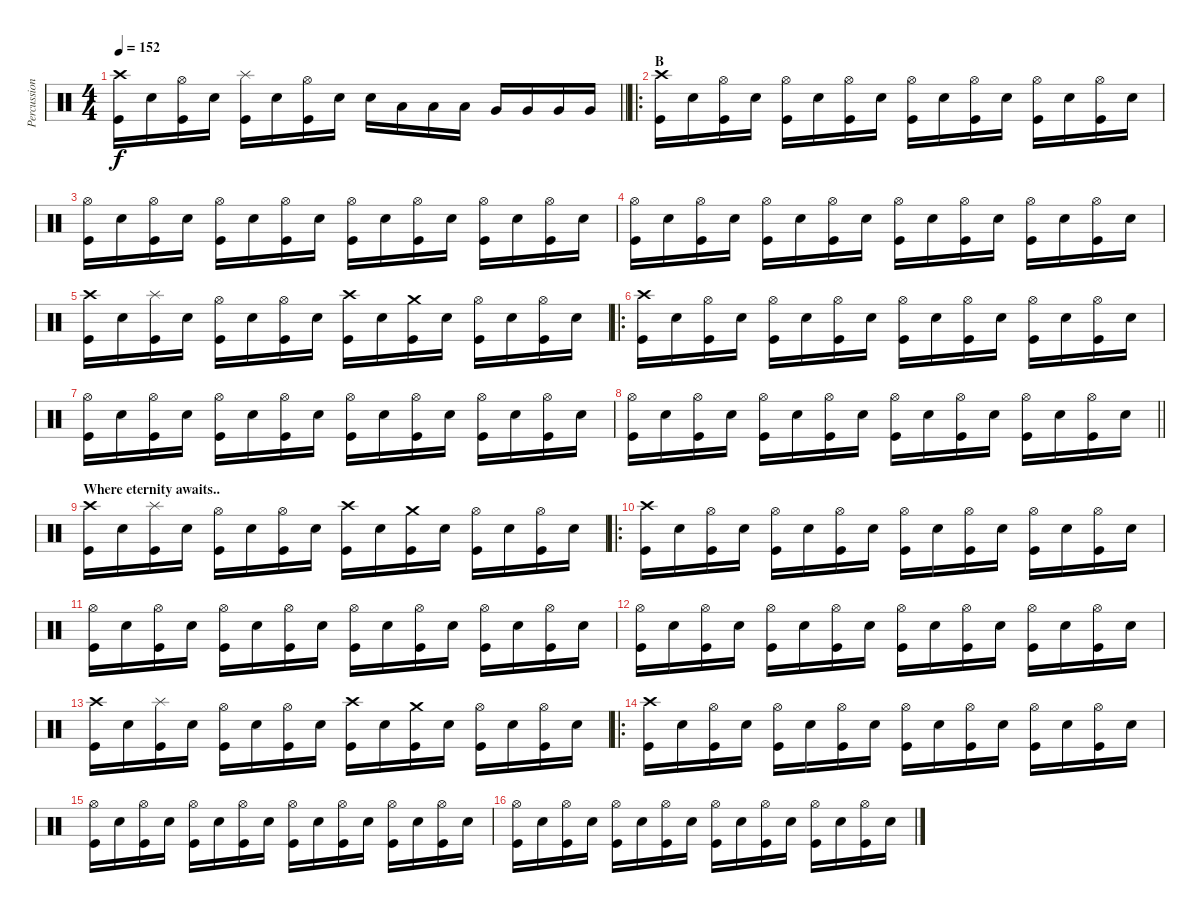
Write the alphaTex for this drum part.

\track ("Percussion" "Percussion") {instrument percussion}
\staff {score}
\articulation defaults
\ts (4 4)
\tempo 152
\clef neutral
\barLineRight lightlight
\ks c
("Crash high (hit)" "Kick (hit)").16{dy f} "Snare (hit) 2".16 ("Hi-Hat (open)" "Kick (hit)").16 "Snare (hit) 2".16 ("Splash (hit)" "Kick (hit)").16 "Snare (hit) 2".16 ("Hi-Hat (open)" "Kick (hit)").16 "Snare (hit) 2".16 "Snare (hit) 2".16 "Low Tom (hit)".16 "Low Tom (hit)".16 "Low Tom (hit)".16 "Very Low Tom (hit)".16 "Very Low Tom (hit)".16 "Very Low Tom (hit)".16 "Very Low Tom (hit)".16 |
\ro
\section ("" "B")
("Crash high (hit)" "Kick (hit)").16 "Snare (hit) 2".16 ("Hi-Hat (open)" "Kick (hit)").16 "Snare (hit) 2".16 ("Hi-Hat (open)" "Kick (hit)").16 "Snare (hit) 2".16 ("Hi-Hat (open)" "Kick (hit)").16 "Snare (hit) 2".16 ("Hi-Hat (open)" "Kick (hit)").16 "Snare (hit) 2".16 ("Hi-Hat (open)" "Kick (hit)").16 "Snare (hit) 2".16 ("Hi-Hat (open)" "Kick (hit)").16 "Snare (hit) 2".16 ("Hi-Hat (open)" "Kick (hit)").16 "Snare (hit) 2".16 |
("Hi-Hat (open)" "Kick (hit)").16 "Snare (hit) 2".16 ("Hi-Hat (open)" "Kick (hit)").16 "Snare (hit) 2".16 ("Hi-Hat (open)" "Kick (hit)").16 "Snare (hit) 2".16 ("Hi-Hat (open)" "Kick (hit)").16 "Snare (hit) 2".16 ("Hi-Hat (open)" "Kick (hit)").16 "Snare (hit) 2".16 ("Hi-Hat (open)" "Kick (hit)").16 "Snare (hit) 2".16 ("Hi-Hat (open)" "Kick (hit)").16 "Snare (hit) 2".16 ("Hi-Hat (open)" "Kick (hit)").16 "Snare (hit) 2".16 |
("Hi-Hat (open)" "Kick (hit)").16 "Snare (hit) 2".16 ("Hi-Hat (open)" "Kick (hit)").16 "Snare (hit) 2".16 ("Hi-Hat (open)" "Kick (hit)").16 "Snare (hit) 2".16 ("Hi-Hat (open)" "Kick (hit)").16 "Snare (hit) 2".16 ("Hi-Hat (open)" "Kick (hit)").16 "Snare (hit) 2".16 ("Hi-Hat (open)" "Kick (hit)").16 "Snare (hit) 2".16 ("Hi-Hat (open)" "Kick (hit)").16 "Snare (hit) 2".16 ("Hi-Hat (open)" "Kick (hit)").16 "Snare (hit) 2".16 |
("Crash high (hit)" "Kick (hit)").16 "Snare (hit) 2".16 ("Splash (hit)" "Kick (hit)").16 "Snare (hit) 2".16 ("Hi-Hat (open)" "Kick (hit)").16 "Snare (hit) 2".16 ("Hi-Hat (open)" "Kick (hit)").16 "Snare (hit) 2".16 ("Crash high (hit)" "Kick (hit)").16 "Snare (hit) 2".16 ("Crash medium (hit)" "Kick (hit)").16 "Snare (hit) 2".16 ("Hi-Hat (open)" "Kick (hit)").16 "Snare (hit) 2".16 ("Hi-Hat (open)" "Kick (hit)").16 "Snare (hit) 2".16 |
\ro
("Crash high (hit)" "Kick (hit)").16 "Snare (hit) 2".16 ("Hi-Hat (open)" "Kick (hit)").16 "Snare (hit) 2".16 ("Hi-Hat (open)" "Kick (hit)").16 "Snare (hit) 2".16 ("Hi-Hat (open)" "Kick (hit)").16 "Snare (hit) 2".16 ("Hi-Hat (open)" "Kick (hit)").16 "Snare (hit) 2".16 ("Hi-Hat (open)" "Kick (hit)").16 "Snare (hit) 2".16 ("Hi-Hat (open)" "Kick (hit)").16 "Snare (hit) 2".16 ("Hi-Hat (open)" "Kick (hit)").16 "Snare (hit) 2".16 |
("Hi-Hat (open)" "Kick (hit)").16 "Snare (hit) 2".16 ("Hi-Hat (open)" "Kick (hit)").16 "Snare (hit) 2".16 ("Hi-Hat (open)" "Kick (hit)").16 "Snare (hit) 2".16 ("Hi-Hat (open)" "Kick (hit)").16 "Snare (hit) 2".16 ("Hi-Hat (open)" "Kick (hit)").16 "Snare (hit) 2".16 ("Hi-Hat (open)" "Kick (hit)").16 "Snare (hit) 2".16 ("Hi-Hat (open)" "Kick (hit)").16 "Snare (hit) 2".16 ("Hi-Hat (open)" "Kick (hit)").16 "Snare (hit) 2".16 |
\barLineRight lightlight
("Hi-Hat (open)" "Kick (hit)").16 "Snare (hit) 2".16 ("Hi-Hat (open)" "Kick (hit)").16 "Snare (hit) 2".16 ("Hi-Hat (open)" "Kick (hit)").16 "Snare (hit) 2".16 ("Hi-Hat (open)" "Kick (hit)").16 "Snare (hit) 2".16 ("Hi-Hat (open)" "Kick (hit)").16 "Snare (hit) 2".16 ("Hi-Hat (open)" "Kick (hit)").16 "Snare (hit) 2".16 ("Hi-Hat (open)" "Kick (hit)").16 "Snare (hit) 2".16 ("Hi-Hat (open)" "Kick (hit)").16 "Snare (hit) 2".16 |
\section ("" "Where eternity awaits..")
("Crash high (hit)" "Kick (hit)").16 "Snare (hit) 2".16 ("Splash (hit)" "Kick (hit)").16 "Snare (hit) 2".16 ("Hi-Hat (open)" "Kick (hit)").16 "Snare (hit) 2".16 ("Hi-Hat (open)" "Kick (hit)").16 "Snare (hit) 2".16 ("Crash high (hit)" "Kick (hit)").16 "Snare (hit) 2".16 ("Crash medium (hit)" "Kick (hit)").16 "Snare (hit) 2".16 ("Hi-Hat (open)" "Kick (hit)").16 "Snare (hit) 2".16 ("Hi-Hat (open)" "Kick (hit)").16 "Snare (hit) 2".16 |
\ro
("Crash high (hit)" "Kick (hit)").16 "Snare (hit) 2".16 ("Hi-Hat (open)" "Kick (hit)").16 "Snare (hit) 2".16 ("Hi-Hat (open)" "Kick (hit)").16 "Snare (hit) 2".16 ("Hi-Hat (open)" "Kick (hit)").16 "Snare (hit) 2".16 ("Hi-Hat (open)" "Kick (hit)").16 "Snare (hit) 2".16 ("Hi-Hat (open)" "Kick (hit)").16 "Snare (hit) 2".16 ("Hi-Hat (open)" "Kick (hit)").16 "Snare (hit) 2".16 ("Hi-Hat (open)" "Kick (hit)").16 "Snare (hit) 2".16 |
("Hi-Hat (open)" "Kick (hit)").16 "Snare (hit) 2".16 ("Hi-Hat (open)" "Kick (hit)").16 "Snare (hit) 2".16 ("Hi-Hat (open)" "Kick (hit)").16 "Snare (hit) 2".16 ("Hi-Hat (open)" "Kick (hit)").16 "Snare (hit) 2".16 ("Hi-Hat (open)" "Kick (hit)").16 "Snare (hit) 2".16 ("Hi-Hat (open)" "Kick (hit)").16 "Snare (hit) 2".16 ("Hi-Hat (open)" "Kick (hit)").16 "Snare (hit) 2".16 ("Hi-Hat (open)" "Kick (hit)").16 "Snare (hit) 2".16 |
("Hi-Hat (open)" "Kick (hit)").16 "Snare (hit) 2".16 ("Hi-Hat (open)" "Kick (hit)").16 "Snare (hit) 2".16 ("Hi-Hat (open)" "Kick (hit)").16 "Snare (hit) 2".16 ("Hi-Hat (open)" "Kick (hit)").16 "Snare (hit) 2".16 ("Hi-Hat (open)" "Kick (hit)").16 "Snare (hit) 2".16 ("Hi-Hat (open)" "Kick (hit)").16 "Snare (hit) 2".16 ("Hi-Hat (open)" "Kick (hit)").16 "Snare (hit) 2".16 ("Hi-Hat (open)" "Kick (hit)").16 "Snare (hit) 2".16 |
("Crash high (hit)" "Kick (hit)").16 "Snare (hit) 2".16 ("Splash (hit)" "Kick (hit)").16 "Snare (hit) 2".16 ("Hi-Hat (open)" "Kick (hit)").16 "Snare (hit) 2".16 ("Hi-Hat (open)" "Kick (hit)").16 "Snare (hit) 2".16 ("Crash high (hit)" "Kick (hit)").16 "Snare (hit) 2".16 ("Crash medium (hit)" "Kick (hit)").16 "Snare (hit) 2".16 ("Hi-Hat (open)" "Kick (hit)").16 "Snare (hit) 2".16 ("Hi-Hat (open)" "Kick (hit)").16 "Snare (hit) 2".16 |
\ro
("Crash high (hit)" "Kick (hit)").16 "Snare (hit) 2".16 ("Hi-Hat (open)" "Kick (hit)").16 "Snare (hit) 2".16 ("Hi-Hat (open)" "Kick (hit)").16 "Snare (hit) 2".16 ("Hi-Hat (open)" "Kick (hit)").16 "Snare (hit) 2".16 ("Hi-Hat (open)" "Kick (hit)").16 "Snare (hit) 2".16 ("Hi-Hat (open)" "Kick (hit)").16 "Snare (hit) 2".16 ("Hi-Hat (open)" "Kick (hit)").16 "Snare (hit) 2".16 ("Hi-Hat (open)" "Kick (hit)").16 "Snare (hit) 2".16 |
("Hi-Hat (open)" "Kick (hit)").16 "Snare (hit) 2".16 ("Hi-Hat (open)" "Kick (hit)").16 "Snare (hit) 2".16 ("Hi-Hat (open)" "Kick (hit)").16 "Snare (hit) 2".16 ("Hi-Hat (open)" "Kick (hit)").16 "Snare (hit) 2".16 ("Hi-Hat (open)" "Kick (hit)").16 "Snare (hit) 2".16 ("Hi-Hat (open)" "Kick (hit)").16 "Snare (hit) 2".16 ("Hi-Hat (open)" "Kick (hit)").16 "Snare (hit) 2".16 ("Hi-Hat (open)" "Kick (hit)").16 "Snare (hit) 2".16 |
("Hi-Hat (open)" "Kick (hit)").16 "Snare (hit) 2".16 ("Hi-Hat (open)" "Kick (hit)").16 "Snare (hit) 2".16 ("Hi-Hat (open)" "Kick (hit)").16 "Snare (hit) 2".16 ("Hi-Hat (open)" "Kick (hit)").16 "Snare (hit) 2".16 ("Hi-Hat (open)" "Kick (hit)").16 "Snare (hit) 2".16 ("Hi-Hat (open)" "Kick (hit)").16 "Snare (hit) 2".16 ("Hi-Hat (open)" "Kick (hit)").16 "Snare (hit) 2".16 ("Hi-Hat (open)" "Kick (hit)").16 "Snare (hit) 2".16
